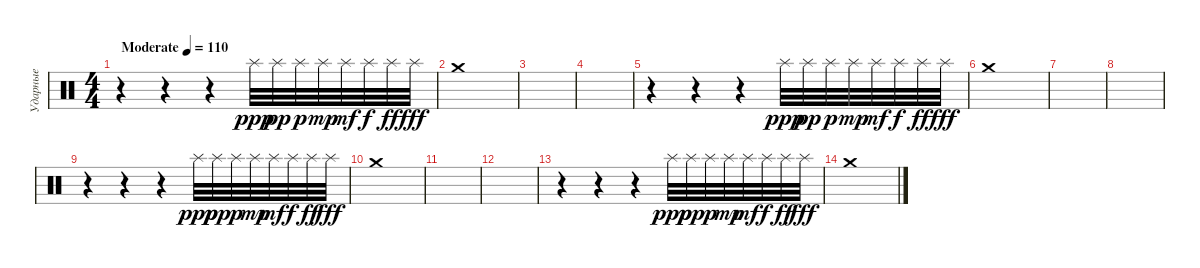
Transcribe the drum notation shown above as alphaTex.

\track ("Ударные" "Ударные") {instrument percussion}
\staff {score}
\articulation defaults
\ts (4 4)
\tempo (110 "Moderate")
\clef neutral
\ks c
r.4{dy ppp} r.4 r.4 "Splash (hit)".32 "Splash (hit)".32{dy pp} "Splash (hit)".32{dy p} "Splash (hit)".32{dy mp} "Splash (hit)".32{dy mf} "Splash (hit)".32{dy f} "Splash (hit)".32{dy ff} "Splash (hit)".32{dy fff} |
"Crash medium (hit)".1 |
|
|
r.4 r.4 r.4 "Splash (hit)".32{dy ppp} "Splash (hit)".32{dy pp} "Splash (hit)".32{dy p} "Splash (hit)".32{dy mp} "Splash (hit)".32{dy mf} "Splash (hit)".32{dy f} "Splash (hit)".32{dy ff} "Splash (hit)".32{dy fff} |
"Crash medium (hit)".1 |
|
|
r.4 r.4 r.4 "Splash (hit)".32{dy ppp} "Splash (hit)".32{dy pp} "Splash (hit)".32{dy p} "Splash (hit)".32{dy mp} "Splash (hit)".32{dy mf} "Splash (hit)".32{dy f} "Splash (hit)".32{dy ff} "Splash (hit)".32{dy fff} |
"Crash medium (hit)".1 |
|
|
r.4 r.4 r.4 "Splash (hit)".32{dy ppp} "Splash (hit)".32{dy pp} "Splash (hit)".32{dy p} "Splash (hit)".32{dy mp} "Splash (hit)".32{dy mf} "Splash (hit)".32{dy f} "Splash (hit)".32{dy ff} "Splash (hit)".32{dy fff} |
"Crash medium (hit)".1
